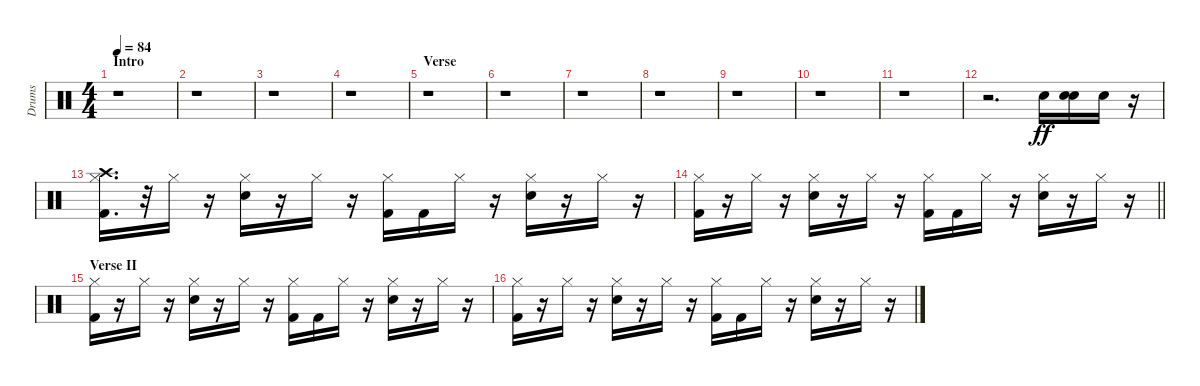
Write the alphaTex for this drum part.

\track ("Drums" "Drums") {instrument percussion}
\staff {score}
\articulation defaults
\ts (4 4)
\section ("" "Intro")
\tempo 84
\clef neutral
\ks c
r.1{dy ff} |
r.1 |
r.1 |
r.1 |
\section ("" "Verse")
r.1 |
r.1 |
r.1 |
r.1 |
r.1 |
r.1 |
r.1 |
r.2{d} "Snare (hit) 2".16 ("Snare (hit) 2" "Snare (hit) 2").16 "Snare (hit) 2".16 r.16 |
("Kick (hit) 2" "Hi-Hat (closed)" "Crash high (hit)").16{d} r.32 "Hi-Hat (closed)".16 r.16 ("Snare (hit) 2" "Hi-Hat (closed)").16 r.16 "Hi-Hat (closed)".16 r.16 ("Kick (hit) 2" "Hi-Hat (closed)").16 "Kick (hit) 2".16 "Hi-Hat (closed)".16 r.16 ("Snare (hit) 2" "Hi-Hat (closed)").16 r.16 "Hi-Hat (closed)".16 r.16 |
\barLineRight lightlight
("Kick (hit) 2" "Hi-Hat (closed)").16 r.16 "Hi-Hat (closed)".16 r.16 ("Snare (hit) 2" "Hi-Hat (closed)").16 r.16 "Hi-Hat (closed)".16 r.16 ("Kick (hit) 2" "Hi-Hat (closed)").16 "Kick (hit) 2".16 "Hi-Hat (closed)".16 r.16 ("Snare (hit) 2" "Hi-Hat (closed)").16 r.16 "Hi-Hat (closed)".16 r.16 |
\section ("" "Verse II")
("Kick (hit) 2" "Hi-Hat (closed)").16 r.16 "Hi-Hat (closed)".16 r.16 ("Snare (hit) 2" "Hi-Hat (closed)").16 r.16 "Hi-Hat (closed)".16 r.16 ("Kick (hit) 2" "Hi-Hat (closed)").16 "Kick (hit) 2".16 "Hi-Hat (closed)".16 r.16 ("Snare (hit) 2" "Hi-Hat (closed)").16 r.16 "Hi-Hat (closed)".16 r.16 |
("Kick (hit) 2" "Hi-Hat (closed)").16 r.16 "Hi-Hat (closed)".16 r.16 ("Snare (hit) 2" "Hi-Hat (closed)").16 r.16 "Hi-Hat (closed)".16 r.16 ("Kick (hit) 2" "Hi-Hat (closed)").16 "Kick (hit) 2".16 "Hi-Hat (closed)".16 r.16 ("Snare (hit) 2" "Hi-Hat (closed)").16 r.16 "Hi-Hat (closed)".16 r.16
